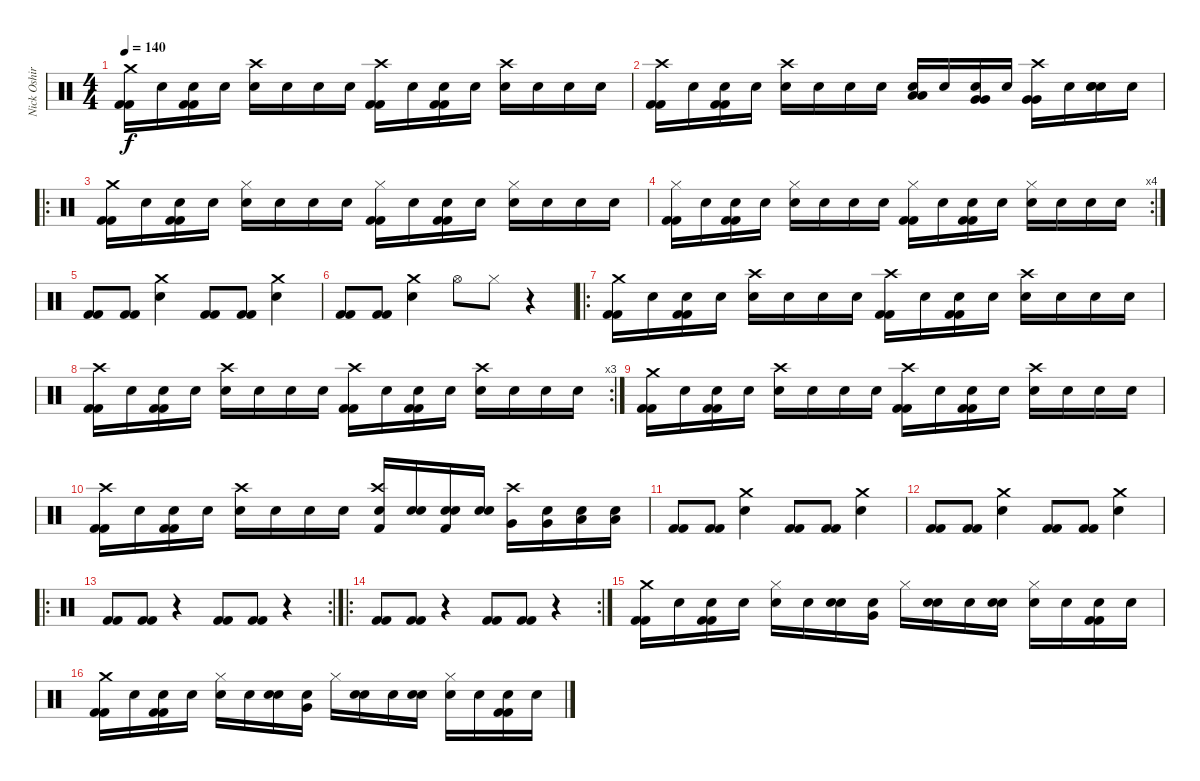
\track ("Nick Oshiro / Drums" "Nick Oshir") {instrument percussion}
\staff {score}
\articulation defaults
\ts (4 4)
\tempo 140
\clef neutral
\ks c
("Crash medium (hit)" "Kick (hit) 2" "Kick (hit) 2").16{dy f} "Snare (hit)".16 ("Snare (hit)" "Kick (hit) 2" "Kick (hit) 2").16 "Snare (hit)".16 ("Crash high (hit)" "Electric Snare (hit)").16 "Snare (hit)".16 "Snare (hit)".16 "Snare (hit)".16 ("Crash high (hit)" "Kick (hit) 2" "Kick (hit) 2").16 "Snare (hit)".16 ("Snare (hit)" "Kick (hit) 2" "Kick (hit) 2").16 "Snare (hit)".16 ("Crash high (hit)" "Electric Snare (hit)").16 "Snare (hit)".16 "Snare (hit)".16 "Snare (hit)".16 |
("Crash high (hit)" "Kick (hit) 2" "Kick (hit) 2").16 "Snare (hit)".16 ("Snare (hit)" "Kick (hit) 2" "Kick (hit) 2").16 "Snare (hit)".16 ("Crash high (hit)" "Electric Snare (hit)").16 "Snare (hit)".16 "Snare (hit)".16 "Snare (hit)".16 ("Snare (hit)" "Low Floor Tom (hit)" "Low Floor Tom (hit)").16 "Snare (hit)".16 ("Snare (hit)" "Very Low Tom (hit)" "Very Low Tom (hit)").16 "Snare (hit)".16 ("Crash high (hit)" "Very Low Tom (hit)" "Very Low Tom (hit)").16 "Snare (hit)".16 ("Snare (hit)" "Electric Snare (hit)" "Electric Snare (hit)").16 "Snare (hit)".16 |
\ro
("Crash medium (hit)" "Kick (hit) 2" "Kick (hit) 2").16 "Snare (hit)".16 ("Snare (hit)" "Kick (hit) 2" "Kick (hit) 2").16 "Snare (hit)".16 ("Hi-Hat (closed)" "Electric Snare (hit)").16 "Snare (hit)".16 "Snare (hit)".16 "Snare (hit)".16 ("Hi-Hat (closed)" "Kick (hit) 2" "Kick (hit) 2").16 "Snare (hit)".16 ("Snare (hit)" "Kick (hit) 2" "Kick (hit) 2").16 "Snare (hit)".16 ("Hi-Hat (closed)" "Electric Snare (hit)").16 "Snare (hit)".16 "Snare (hit)".16 "Snare (hit)".16 |
\rc 4
("Hi-Hat (closed)" "Kick (hit) 2" "Kick (hit) 2").16 "Snare (hit)".16 ("Snare (hit)" "Kick (hit) 2" "Kick (hit) 2").16 "Snare (hit)".16 ("Hi-Hat (closed)" "Electric Snare (hit)").16 "Snare (hit)".16 "Snare (hit)".16 "Snare (hit)".16 ("Hi-Hat (closed)" "Kick (hit) 2" "Kick (hit) 2").16 "Snare (hit)".16 ("Snare (hit)" "Kick (hit) 2" "Kick (hit) 2").16 "Snare (hit)".16 ("Hi-Hat (closed)" "Electric Snare (hit)").16 "Snare (hit)".16 "Snare (hit)".16 "Snare (hit)".16 |
("Kick (hit) 2" "Kick (hit) 2").8 ("Kick (hit) 2" "Kick (hit) 2").8 ("Crash medium (hit)" "Electric Snare (hit)").4 ("Kick (hit) 2" "Kick (hit) 2").8 ("Kick (hit) 2" "Kick (hit) 2").8 ("Crash medium (hit)" "Electric Snare (hit)").4 |
("Kick (hit) 2" "Kick (hit) 2").8 ("Kick (hit) 2" "Kick (hit) 2").8 ("Crash medium (hit)" "Electric Snare (hit)").4 "Hi-Hat (open)".8 "Hi-Hat (closed)".8 r.4 |
\ro
("Crash medium (hit)" "Kick (hit) 2" "Kick (hit) 2").16 "Snare (hit)".16 ("Snare (hit)" "Kick (hit) 2" "Kick (hit) 2").16 "Snare (hit)".16 ("Crash high (hit)" "Electric Snare (hit)").16 "Snare (hit)".16 "Snare (hit)".16 "Snare (hit)".16 ("Crash high (hit)" "Kick (hit) 2" "Kick (hit) 2").16 "Snare (hit)".16 ("Snare (hit)" "Kick (hit) 2" "Kick (hit) 2").16 "Snare (hit)".16 ("Crash high (hit)" "Electric Snare (hit)").16 "Snare (hit)".16 "Snare (hit)".16 "Snare (hit)".16 |
\rc 3
("Crash high (hit)" "Kick (hit) 2" "Kick (hit) 2").16 "Snare (hit)".16 ("Snare (hit)" "Kick (hit) 2" "Kick (hit) 2").16 "Snare (hit)".16 ("Crash high (hit)" "Electric Snare (hit)").16 "Snare (hit)".16 "Snare (hit)".16 "Snare (hit)".16 ("Crash high (hit)" "Kick (hit) 2" "Kick (hit) 2").16 "Snare (hit)".16 ("Snare (hit)" "Kick (hit) 2" "Kick (hit) 2").16 "Snare (hit)".16 ("Crash high (hit)" "Electric Snare (hit)").16 "Snare (hit)".16 "Snare (hit)".16 "Snare (hit)".16 |
("Crash medium (hit)" "Kick (hit) 2" "Kick (hit) 2").16 "Snare (hit)".16 ("Snare (hit)" "Kick (hit) 2" "Kick (hit) 2").16 "Snare (hit)".16 ("Crash high (hit)" "Electric Snare (hit)").16 "Snare (hit)".16 "Snare (hit)".16 "Snare (hit)".16 ("Crash high (hit)" "Kick (hit) 2" "Kick (hit) 2").16 "Snare (hit)".16 ("Snare (hit)" "Kick (hit) 2" "Kick (hit) 2").16 "Snare (hit)".16 ("Crash high (hit)" "Electric Snare (hit)").16 "Snare (hit)".16 "Snare (hit)".16 "Snare (hit)".16 |
("Crash high (hit)" "Kick (hit) 2" "Kick (hit) 2").16 "Snare (hit)".16 ("Snare (hit)" "Kick (hit) 2" "Kick (hit) 2").16 "Snare (hit)".16 ("Crash high (hit)" "Electric Snare (hit)").16 "Snare (hit)".16 "Snare (hit)".16 "Snare (hit)".16 ("Crash high (hit)" "Electric Snare (hit)" "Kick (hit) 2").16 ("Snare (hit)" "Electric Snare (hit)").16 ("Snare (hit)" "Electric Snare (hit)" "Kick (hit) 2").16 ("Snare (hit)" "Electric Snare (hit)").16 ("Crash high (hit)" "Very Low Tom (hit)").16 ("Snare (hit)" "Very Low Tom (hit)").16 ("Snare (hit)" "Low Floor Tom (hit)").16 ("Snare (hit)" "Low Floor Tom (hit)").16 |
("Kick (hit) 2" "Kick (hit) 2").8 ("Kick (hit) 2" "Kick (hit) 2").8 ("Crash medium (hit)" "Electric Snare (hit)").4 ("Kick (hit) 2" "Kick (hit) 2").8 ("Kick (hit) 2" "Kick (hit) 2").8 ("Crash medium (hit)" "Electric Snare (hit)").4 |
("Kick (hit) 2" "Kick (hit) 2").8 ("Kick (hit) 2" "Kick (hit) 2").8 ("Crash medium (hit)" "Electric Snare (hit)").4 ("Kick (hit) 2" "Kick (hit) 2").8 ("Kick (hit) 2" "Kick (hit) 2").8 ("Crash medium (hit)" "Electric Snare (hit)").4 |
\ro
\rc 2
("Kick (hit) 2" "Kick (hit) 2").8 ("Kick (hit) 2" "Kick (hit) 2").8 r.4 ("Kick (hit) 2" "Kick (hit) 2").8 ("Kick (hit) 2" "Kick (hit) 2").8 r.4 |
\ro
\rc 2
("Kick (hit) 2" "Kick (hit) 2").8 ("Kick (hit) 2" "Kick (hit) 2").8 r.4 ("Kick (hit) 2" "Kick (hit) 2").8 ("Kick (hit) 2" "Kick (hit) 2").8 r.4 |
("Crash medium (hit)" "Kick (hit) 2" "Kick (hit) 2").16 "Snare (hit)".16 ("Snare (hit)" "Kick (hit) 2" "Kick (hit) 2").16 "Snare (hit)".16 ("Hi-Hat (closed)" "Electric Snare (hit)").16 "Snare (hit)".16 ("Snare (hit)" "Electric Snare (hit)").16 ("Snare (hit)" "Very Low Tom (hit)").16 "Hi-Hat (closed)".16 ("Snare (hit)" "Electric Snare (hit)").16 "Snare (hit)".16 ("Snare (hit)" "Electric Snare (hit)").16 ("Hi-Hat (closed)" "Electric Snare (hit)").16 "Snare (hit)".16 ("Snare (hit)" "Kick (hit) 2" "Kick (hit) 2").16 "Snare (hit)".16 |
("Crash medium (hit)" "Kick (hit) 2" "Kick (hit) 2").16 "Snare (hit)".16 ("Snare (hit)" "Kick (hit) 2" "Kick (hit) 2").16 "Snare (hit)".16 ("Hi-Hat (closed)" "Electric Snare (hit)").16 "Snare (hit)".16 ("Snare (hit)" "Electric Snare (hit)").16 ("Snare (hit)" "Very Low Tom (hit)").16 "Hi-Hat (closed)".16 ("Snare (hit)" "Electric Snare (hit)").16 "Snare (hit)".16 ("Snare (hit)" "Electric Snare (hit)").16 ("Hi-Hat (closed)" "Electric Snare (hit)").16 "Snare (hit)".16 ("Snare (hit)" "Kick (hit) 2" "Kick (hit) 2").16 "Snare (hit)".16
